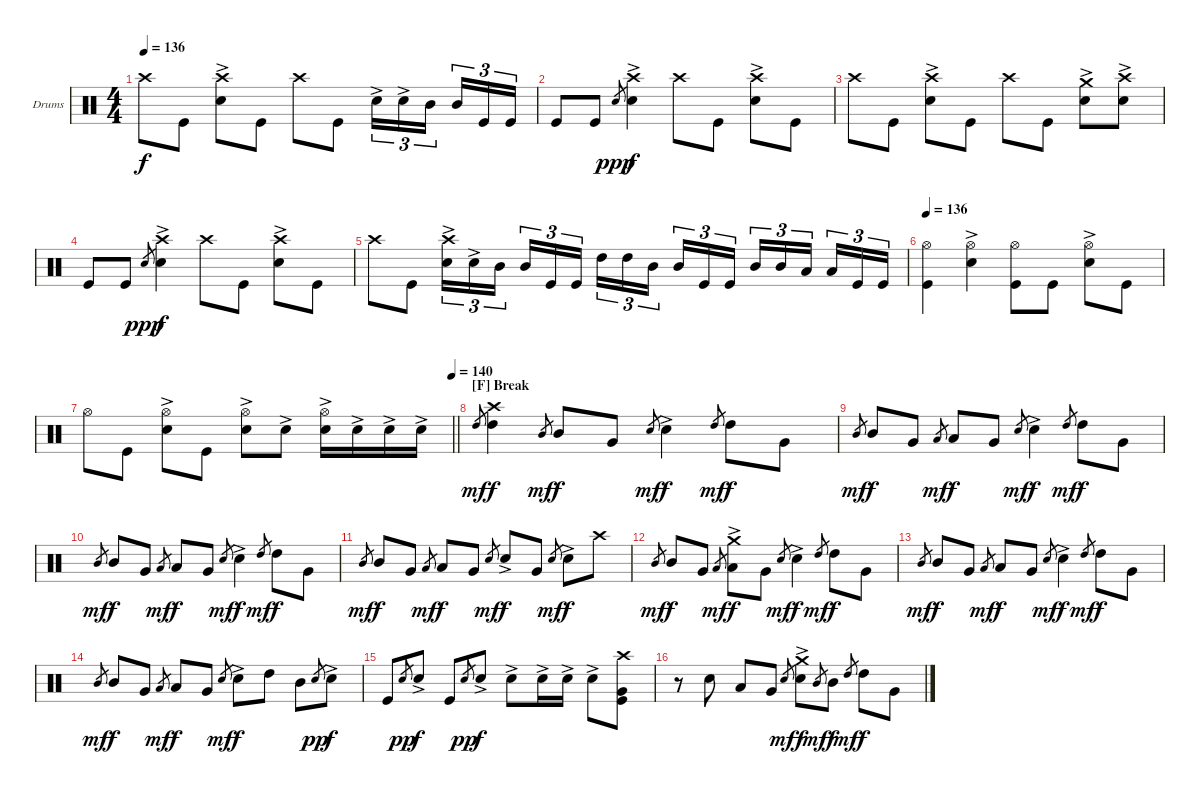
\bracketExtendMode groupsimilarinstruments
\firstSystemTrackNameOrientation horizontal
\otherSystemsTrackNameOrientation horizontal
\track ("Drumkit" "Drums") {instrument percussion}
\staff {score}
\articulation defaults
\ts (4 4)
\tempo 136
\clef neutral
\ks c "Crash high (hit)".8{dy f} "Kick (hit)".8
("Crash high (hit)" "Snare (hit) 2"{ac}).8 "Kick (hit)".8 "Crash high (hit)".8 "Kick (hit)".8 "Snare (hit) 2"{ac}.16{tu (3 2)} "Snare (hit) 2"{ac}.16{tu (3 2)} "Mid Tom (hit)".16{tu (3 2)} "Mid Tom (hit)".16{tu (3 2)} "Kick (hit)".16{tu (3 2)} "Kick (hit)".16{tu (3 2)} |
"Kick (hit)".8 "Kick (hit)".8 "Snare (hit) 2".8{gr dy ppp} ("Crash high (hit)" "Snare (hit) 2"{ac}).4{dy f} "Crash high (hit)".8 "Kick (hit)".8 ("Crash high (hit)" "Snare (hit) 2"{ac}).8 "Kick (hit)".8 |
"Crash high (hit)".8 "Kick (hit)".8 ("Crash high (hit)" "Snare (hit) 2"{ac}).8 "Kick (hit)".8 "Crash high (hit)".8 "Kick (hit)".8 ("Crash medium (hit)"{ac} "Snare (hit) 2"{ac}).8 ("Crash high (hit)" "Snare (hit) 2"{ac}).8 |
"Kick (hit)".8 "Kick (hit)".8 "Snare (hit) 2".8{gr dy ppp} ("Crash high (hit)" "Snare (hit) 2"{ac}).4{dy f} "Crash high (hit)".8 "Kick (hit)".8 ("Crash high (hit)" "Snare (hit) 2"{ac}).8 "Kick (hit)".8 |
"Crash high (hit)".8 "Kick (hit)".8 ("Crash high (hit)" "Snare (hit) 2"{ac}).16{tu (3 2)} "Snare (hit) 2"{ac}.16{tu (3 2)} "Mid Tom (hit)".16{tu (3 2)} "Mid Tom (hit)".16{tu (3 2)} "Kick (hit)".16{tu (3 2)} "Kick (hit)".16{tu (3 2)} "High Tom (hit)".16{tu (3 2)} "High Tom (hit)".16{tu (3 2)} "Mid Tom (hit)".16{tu (3 2)} "Mid Tom (hit)".16{tu (3 2)} "Kick (hit)".16{tu (3 2)} "Kick (hit)".16{tu (3 2)} "Mid Tom (hit)".16{tu (3 2)} "Mid Tom (hit)".16{tu (3 2)} "Low Tom (hit)".16{tu (3 2)} "Low Tom (hit)".16{tu (3 2)} "Kick (hit)".16{tu (3 2)} "Kick (hit)".16{tu (3 2)} |
\tempo 136
("Hi-Hat (open)" "Kick (hit)").4 ("Hi-Hat (open)" "Snare (hit) 2"{ac}).4 ("Hi-Hat (open)" "Kick (hit)").8 "Kick (hit)".8 ("Hi-Hat (open)" "Snare (hit) 2"{ac}).8 "Kick (hit)".8 |
\tempo (140 1)
\barLineRight lightlight "Hi-Hat (open)".8 "Kick (hit)".8
("Hi-Hat (open)" "Snare (hit) 2"{ac}).8 "Kick (hit)".8 ("Hi-Hat (open)" "Snare (hit) 2"{ac}).8 "Snare (hit) 2"{ac}.8 ("Hi-Hat (open)" "Snare (hit) 2"{ac}).16 "Snare (hit) 2"{ac}.16 "Snare (hit) 2"{ac}.16 "Snare (hit) 2"{ac}.16 |
\section ("F" "Break")
"High Tom (hit)".8{gr dy mf} ("Crash high (hit)" "High Tom (hit)").4{dy f} "Mid Tom (hit)".8{gr dy mf} "Mid Tom (hit)".8{dy f} "Very Low Tom (hit)".8 "Snare (hit) 2".8{gr dy mf} "Snare (hit) 2"{ac}.4{dy f} "High Tom (hit)".8{gr dy mf} "High Tom (hit)".8{dy f} "Very Low Tom (hit)".8 |
"Mid Tom (hit)".8{gr dy mf} "Mid Tom (hit)".8{dy f} "Very Low Tom (hit)".8 "Low Tom (hit)".8{gr dy mf} "Low Tom (hit)".8{dy f} "Very Low Tom (hit)".8 "Snare (hit) 2".8{gr dy mf} "Snare (hit) 2"{ac}.4{dy f} "High Tom (hit)".8{gr dy mf} "High Tom (hit)".8{dy f} "Very Low Tom (hit)".8 |
"Mid Tom (hit)".8{gr dy mf} "Mid Tom (hit)".8{dy f} "Very Low Tom (hit)".8 "Low Tom (hit)".8{gr dy mf} "Low Tom (hit)".8{dy f} "Very Low Tom (hit)".8 "Snare (hit) 2".8{gr dy mf} "Snare (hit) 2"{ac}.4{dy f} "High Tom (hit)".8{gr dy mf} "High Tom (hit)".8{dy f} "Very Low Tom (hit)".8 |
"Mid Tom (hit)".8{gr dy mf} "Mid Tom (hit)".8{dy f} "Very Low Tom (hit)".8 "Low Tom (hit)".8{gr dy mf} "Low Tom (hit)".8{dy f} "Very Low Tom (hit)".8 "Snare (hit) 2".8{gr dy mf} "Snare (hit) 2"{ac}.8{dy f} "Very Low Tom (hit)".8 "Snare (hit) 2".8{gr dy mf} "Snare (hit) 2"{ac}.8{dy f} "Crash high (hit)".8 |
"Mid Tom (hit)".8{gr dy mf} "Mid Tom (hit)".8{dy f} "Very Low Tom (hit)".8 "Low Tom (hit)".8{gr dy mf} ("Crash medium (hit)"{ac} "Low Tom (hit)").8{dy f} "Very Low Tom (hit)".8 "Snare (hit) 2".8{gr dy mf} "Snare (hit) 2"{ac}.4{dy f} "High Tom (hit)".8{gr dy mf} "High Tom (hit)".8{dy f} "Very Low Tom (hit)".8 |
"Mid Tom (hit)".8{gr dy mf} "Mid Tom (hit)".8{dy f} "Very Low Tom (hit)".8 "Low Tom (hit)".8{gr dy mf} "Low Tom (hit)".8{dy f} "Very Low Tom (hit)".8 "Snare (hit) 2".8{gr dy mf} "Snare (hit) 2"{ac}.4{dy f} "High Tom (hit)".8{gr dy mf} "High Tom (hit)".8{dy f} "Very Low Tom (hit)".8 |
"Mid Tom (hit)".8{gr dy mf} "Mid Tom (hit)".8{dy f} "Very Low Tom (hit)".8 "Low Tom (hit)".8{gr dy mf} "Low Tom (hit)".8{dy f} "Very Low Tom (hit)".8 "Snare (hit) 2".8{gr dy mf} "Snare (hit) 2"{ac}.8{dy f} "High Tom (hit)".8 "Mid Tom (hit)".8 "Snare (hit) 2".8{gr dy pp} "Snare (hit) 2"{ac}.8{dy f} |
"Kick (hit)".8 "Snare (hit) 2".8{gr dy pp} "Snare (hit) 2"{ac}.8{dy f} "Kick (hit)".8 "Snare (hit) 2".8{gr dy pp} "Snare (hit) 2"{ac}.8{dy f} "Snare (hit) 2"{ac}.8 "Snare (hit) 2"{ac}.16 "Snare (hit) 2"{ac}.16 "Snare (hit) 2"{ac}.8 ("Crash high (hit)" "Kick (hit)" "Very Low Tom (hit)").8 |
r.8 "Snare (hit) 2".8 "Low Tom (hit)".8 "Very Low Tom (hit)".8 "Snare (hit) 2".8{gr dy mf} ("Crash medium (hit)"{ac} "Snare (hit) 2"{ac}).8{dy f} "Mid Tom (hit)".8{gr dy mf} "Mid Tom (hit)".8{dy f} "High Tom (hit)".8{gr dy mf} "High Tom (hit)".8{dy f} "Very Low Tom (hit)".8
